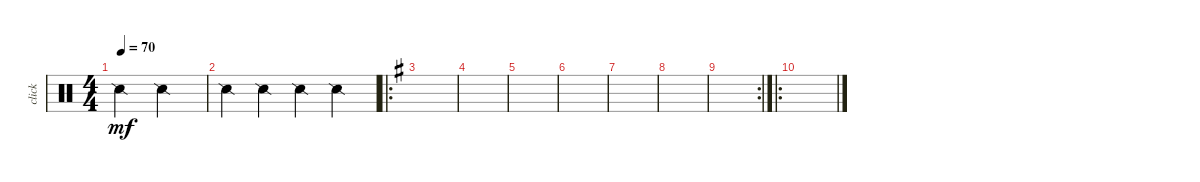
\track ("click" "click") {instrument percussion}
\staff {score}
\articulation defaults
\ts (4 4)
\tempo 70
\clef neutral
\ks c "Snare (side stick) 2".2{dy mf} "Snare (side stick) 2".2
|
"Snare (side stick) 2".4 "Snare (side stick) 2".4 "Snare (side stick) 2".4 "Snare (side stick) 2".4 |
\ro
\ks eminor
|
|
|
|
|
|
\rc 2
|
\ro
